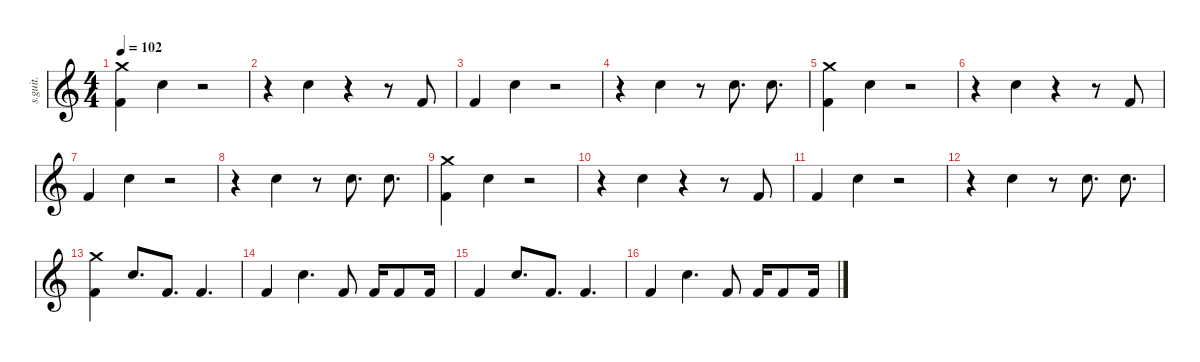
\defaultSystemsLayout 4
\hideDynamics
\bracketExtendMode nobrackets
\track ("" "s.guit.") {instrument percussion}
\staff {score}
\articulation defaults
\ts (4 4)
\tempo 102
\clef g2
\ks c
("Crash medium (hit)" "Kick (hit) 2").4{dy pp} "Electric Snare (hit)".4{dy f} r.2 |
r.4 "Electric Snare (hit)".4 r.4 r.8 "Kick (hit) 2".8 |
"Kick (hit) 2".4 "Electric Snare (hit)".4 r.2 |
r.4 "Electric Snare (hit)".4 r.8 "Electric Snare (hit)".8{d} "Electric Snare (hit)".8{d} |
("Crash medium (hit)" "Kick (hit) 2").4{dy pp} "Electric Snare (hit)".4{dy f} r.2 |
r.4 "Electric Snare (hit)".4 r.4 r.8 "Kick (hit) 2".8 |
"Kick (hit) 2".4 "Electric Snare (hit)".4 r.2 |
r.4 "Electric Snare (hit)".4 r.8 "Electric Snare (hit)".8{d} "Electric Snare (hit)".8{d} |
("Crash medium (hit)" "Kick (hit) 2").4{dy pp} "Electric Snare (hit)".4{dy f} r.2 |
r.4 "Electric Snare (hit)".4 r.4 r.8 "Kick (hit) 2".8 |
"Kick (hit) 2".4 "Electric Snare (hit)".4 r.2 |
r.4 "Electric Snare (hit)".4 r.8 "Electric Snare (hit)".8{d} "Electric Snare (hit)".8{d} |
("Crash medium (hit)" "Kick (hit) 2").4{dy pp} "Electric Snare (hit)".8{d dy f} "Kick (hit) 2".8{d} "Kick (hit) 2".4{d} |
"Kick (hit) 2".4 "Electric Snare (hit)".4{d} "Kick (hit) 2".8 "Kick (hit) 2".16 "Kick (hit) 2".8 "Kick (hit) 2".16 |
"Kick (hit) 2".4 "Electric Snare (hit)".8{d} "Kick (hit) 2".8{d} "Kick (hit) 2".4{d} |
"Kick (hit) 2".4 "Electric Snare (hit)".4{d} "Kick (hit) 2".8 "Kick (hit) 2".16 "Kick (hit) 2".8 "Kick (hit) 2".16
